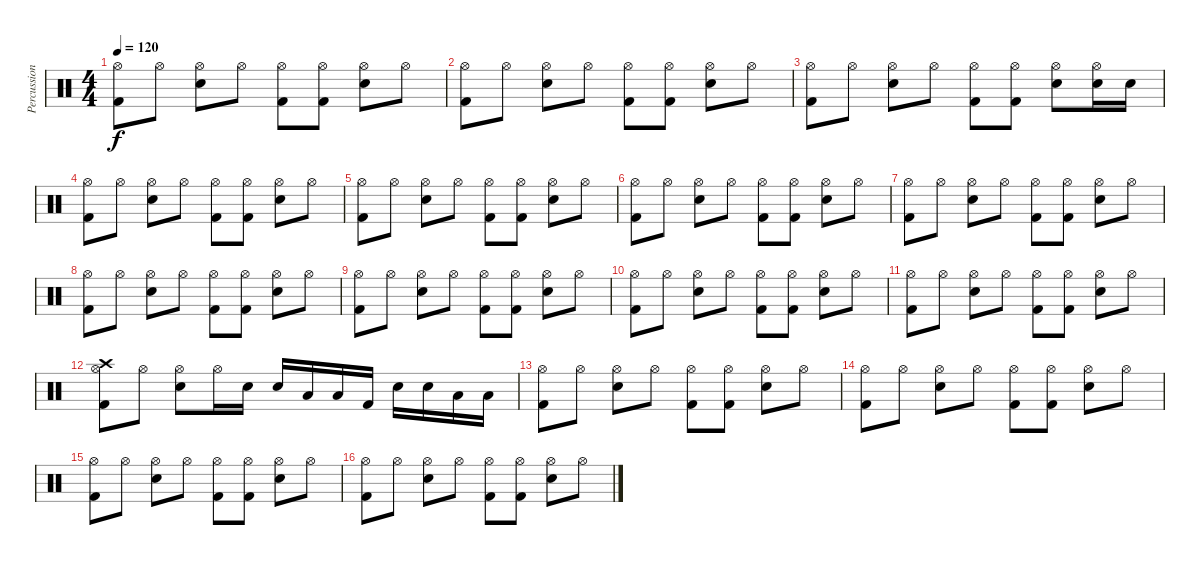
\track ("Percussion" "Percussion") {instrument percussion}
\staff {score}
\articulation defaults
\ts (4 4)
\tempo 120
\clef neutral
\ks c
("Hi-Hat (open)" "Kick (hit) 2").8{dy f} "Hi-Hat (open)".8 ("Hi-Hat (open)" "Snare (hit) 2").8 "Hi-Hat (open)".8 ("Hi-Hat (open)" "Kick (hit) 2").8 ("Hi-Hat (open)" "Kick (hit) 2").8 ("Hi-Hat (open)" "Snare (hit) 2").8 "Hi-Hat (open)".8 |
("Hi-Hat (open)" "Kick (hit) 2").8 "Hi-Hat (open)".8 ("Hi-Hat (open)" "Snare (hit) 2").8 "Hi-Hat (open)".8 ("Hi-Hat (open)" "Kick (hit) 2").8 ("Hi-Hat (open)" "Kick (hit) 2").8 ("Hi-Hat (open)" "Snare (hit) 2").8 "Hi-Hat (open)".8 |
("Hi-Hat (open)" "Kick (hit) 2").8 "Hi-Hat (open)".8 ("Hi-Hat (open)" "Snare (hit) 2").8 "Hi-Hat (open)".8 ("Hi-Hat (open)" "Kick (hit) 2").8 ("Hi-Hat (open)" "Kick (hit) 2").8 ("Hi-Hat (open)" "Snare (hit) 2").8 ("Hi-Hat (open)" "Snare (hit) 2").16 "Snare (hit) 2".16 |
("Hi-Hat (open)" "Kick (hit) 2").8 "Hi-Hat (open)".8 ("Hi-Hat (open)" "Snare (hit) 2").8 "Hi-Hat (open)".8 ("Hi-Hat (open)" "Kick (hit) 2").8 ("Hi-Hat (open)" "Kick (hit) 2").8 ("Hi-Hat (open)" "Snare (hit) 2").8 "Hi-Hat (open)".8 |
("Hi-Hat (open)" "Kick (hit) 2").8 "Hi-Hat (open)".8 ("Hi-Hat (open)" "Snare (hit) 2").8 "Hi-Hat (open)".8 ("Hi-Hat (open)" "Kick (hit) 2").8 ("Hi-Hat (open)" "Kick (hit) 2").8 ("Hi-Hat (open)" "Snare (hit) 2").8 "Hi-Hat (open)".8 |
("Hi-Hat (open)" "Kick (hit) 2").8 "Hi-Hat (open)".8 ("Hi-Hat (open)" "Snare (hit) 2").8 "Hi-Hat (open)".8 ("Hi-Hat (open)" "Kick (hit) 2").8 ("Hi-Hat (open)" "Kick (hit) 2").8 ("Hi-Hat (open)" "Snare (hit) 2").8 "Hi-Hat (open)".8 |
("Hi-Hat (open)" "Kick (hit) 2").8 "Hi-Hat (open)".8 ("Hi-Hat (open)" "Snare (hit) 2").8 "Hi-Hat (open)".8 ("Hi-Hat (open)" "Kick (hit) 2").8 ("Hi-Hat (open)" "Kick (hit) 2").8 ("Hi-Hat (open)" "Snare (hit) 2").8 "Hi-Hat (open)".8 |
("Hi-Hat (open)" "Kick (hit) 2").8 "Hi-Hat (open)".8 ("Hi-Hat (open)" "Snare (hit) 2").8 "Hi-Hat (open)".8 ("Hi-Hat (open)" "Kick (hit) 2").8 ("Hi-Hat (open)" "Kick (hit) 2").8 ("Hi-Hat (open)" "Snare (hit) 2").8 "Hi-Hat (open)".8 |
("Hi-Hat (open)" "Kick (hit) 2").8 "Hi-Hat (open)".8 ("Hi-Hat (open)" "Snare (hit) 2").8 "Hi-Hat (open)".8 ("Hi-Hat (open)" "Kick (hit) 2").8 ("Hi-Hat (open)" "Kick (hit) 2").8 ("Hi-Hat (open)" "Snare (hit) 2").8 "Hi-Hat (open)".8 |
("Hi-Hat (open)" "Kick (hit) 2").8 "Hi-Hat (open)".8 ("Hi-Hat (open)" "Snare (hit) 2").8 "Hi-Hat (open)".8 ("Hi-Hat (open)" "Kick (hit) 2").8 ("Hi-Hat (open)" "Kick (hit) 2").8 ("Hi-Hat (open)" "Snare (hit) 2").8 "Hi-Hat (open)".8 |
("Hi-Hat (open)" "Kick (hit) 2").8 "Hi-Hat (open)".8 ("Hi-Hat (open)" "Snare (hit) 2").8 "Hi-Hat (open)".8 ("Hi-Hat (open)" "Kick (hit) 2").8 ("Hi-Hat (open)" "Kick (hit) 2").8 ("Hi-Hat (open)" "Snare (hit) 2").8 "Hi-Hat (open)".8 |
("Hi-Hat (open)" "Crash high (hit)" "Kick (hit) 2").8 "Hi-Hat (open)".8 ("Hi-Hat (open)" "Snare (hit) 2").8 "Hi-Hat (open)".16 "Snare (hit) 2".16 "Snare (hit) 2".16 "Low Floor Tom (hit)".16 "Low Floor Tom (hit)".16 "Kick (hit) 2".16 "Snare (hit) 2".16 "Snare (hit) 2".16 "Low Floor Tom (hit)".16 "Low Floor Tom (hit)".16 |
("Hi-Hat (open)" "Kick (hit) 2").8 "Hi-Hat (open)".8 ("Hi-Hat (open)" "Snare (hit) 2").8 "Hi-Hat (open)".8 ("Hi-Hat (open)" "Kick (hit) 2").8 ("Hi-Hat (open)" "Kick (hit) 2").8 ("Hi-Hat (open)" "Snare (hit) 2").8 "Hi-Hat (open)".8 |
("Hi-Hat (open)" "Kick (hit) 2").8 "Hi-Hat (open)".8 ("Hi-Hat (open)" "Snare (hit) 2").8 "Hi-Hat (open)".8 ("Hi-Hat (open)" "Kick (hit) 2").8 ("Hi-Hat (open)" "Kick (hit) 2").8 ("Hi-Hat (open)" "Snare (hit) 2").8 "Hi-Hat (open)".8 |
("Hi-Hat (open)" "Kick (hit) 2").8 "Hi-Hat (open)".8 ("Hi-Hat (open)" "Snare (hit) 2").8 "Hi-Hat (open)".8 ("Hi-Hat (open)" "Kick (hit) 2").8 ("Hi-Hat (open)" "Kick (hit) 2").8 ("Hi-Hat (open)" "Snare (hit) 2").8 "Hi-Hat (open)".8 |
("Hi-Hat (open)" "Kick (hit) 2").8 "Hi-Hat (open)".8 ("Hi-Hat (open)" "Snare (hit) 2").8 "Hi-Hat (open)".8 ("Hi-Hat (open)" "Kick (hit) 2").8 ("Hi-Hat (open)" "Kick (hit) 2").8 ("Hi-Hat (open)" "Snare (hit) 2").8 "Hi-Hat (open)".8
